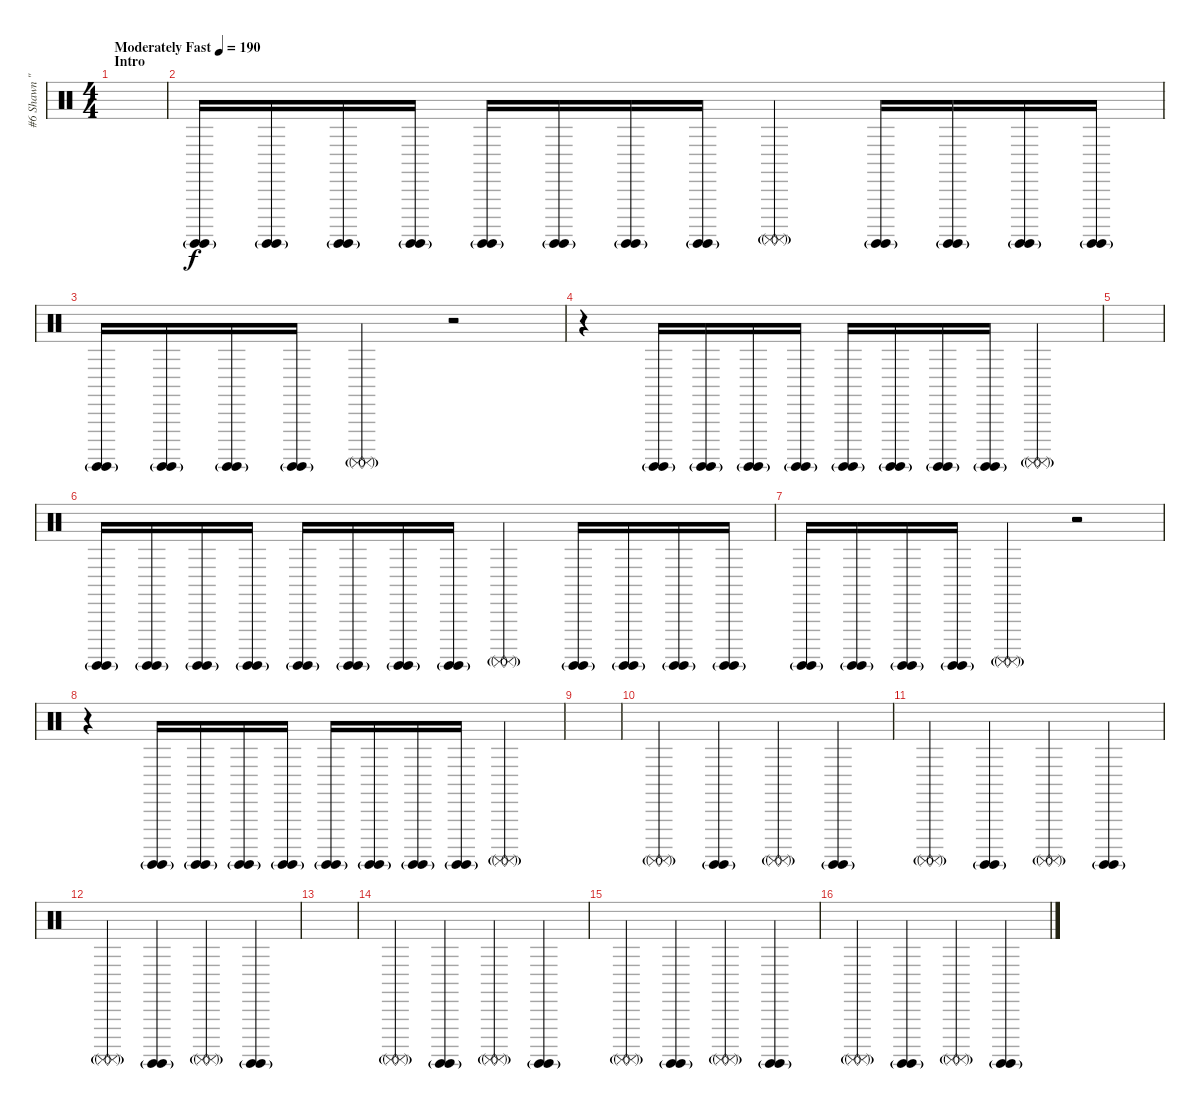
\track ("#6 Shawn \"Clown\" Crahan" "#6 Shawn \"") {instrument percussion}
\staff {score}
\articulation defaults
\ts (4 4)
\section ("" "Intro")
\tempo (190 "Moderately Fast")
\clef neutral
\ks c
|
("Surdo (hit)"{g} "Surdo (hit)"{g}).16 ("Surdo (hit)"{g} "Surdo (hit)"{g}).16 ("Surdo (hit)"{g} "Surdo (hit)"{g}).16 ("Surdo (hit)"{g} "Surdo (hit)"{g}).16 ("Surdo (hit)"{g} "Surdo (hit)"{g}).16 ("Surdo (hit)"{g} "Surdo (hit)"{g}).16 ("Surdo (hit)"{g} "Surdo (hit)"{g}).16 ("Surdo (hit)"{g} "Surdo (hit)"{g}).16 ("Surdo (mute)"{g} "Surdo (mute)"{g}).4 ("Surdo (hit)"{g} "Surdo (hit)"{g}).16 ("Surdo (hit)"{g} "Surdo (hit)"{g}).16 ("Surdo (hit)"{g} "Surdo (hit)"{g}).16 ("Surdo (hit)"{g} "Surdo (hit)"{g}).16 |
("Surdo (hit)"{g} "Surdo (hit)"{g}).16 ("Surdo (hit)"{g} "Surdo (hit)"{g}).16 ("Surdo (hit)"{g} "Surdo (hit)"{g}).16 ("Surdo (hit)"{g} "Surdo (hit)"{g}).16 ("Surdo (mute)"{g} "Surdo (mute)"{g}).4 r.2 |
r.4 ("Surdo (hit)"{g} "Surdo (hit)"{g}).16 ("Surdo (hit)"{g} "Surdo (hit)"{g}).16 ("Surdo (hit)"{g} "Surdo (hit)"{g}).16 ("Surdo (hit)"{g} "Surdo (hit)"{g}).16 ("Surdo (hit)"{g} "Surdo (hit)"{g}).16 ("Surdo (hit)"{g} "Surdo (hit)"{g}).16 ("Surdo (hit)"{g} "Surdo (hit)"{g}).16 ("Surdo (hit)"{g} "Surdo (hit)"{g}).16 ("Surdo (mute)"{g} "Surdo (mute)"{g}).4 |
|
("Surdo (hit)"{g} "Surdo (hit)"{g}).16 ("Surdo (hit)"{g} "Surdo (hit)"{g}).16 ("Surdo (hit)"{g} "Surdo (hit)"{g}).16 ("Surdo (hit)"{g} "Surdo (hit)"{g}).16 ("Surdo (hit)"{g} "Surdo (hit)"{g}).16 ("Surdo (hit)"{g} "Surdo (hit)"{g}).16 ("Surdo (hit)"{g} "Surdo (hit)"{g}).16 ("Surdo (hit)"{g} "Surdo (hit)"{g}).16 ("Surdo (mute)"{g} "Surdo (mute)"{g}).4 ("Surdo (hit)"{g} "Surdo (hit)"{g}).16 ("Surdo (hit)"{g} "Surdo (hit)"{g}).16 ("Surdo (hit)"{g} "Surdo (hit)"{g}).16 ("Surdo (hit)"{g} "Surdo (hit)"{g}).16 |
("Surdo (hit)"{g} "Surdo (hit)"{g}).16 ("Surdo (hit)"{g} "Surdo (hit)"{g}).16 ("Surdo (hit)"{g} "Surdo (hit)"{g}).16 ("Surdo (hit)"{g} "Surdo (hit)"{g}).16 ("Surdo (mute)"{g} "Surdo (mute)"{g}).4 r.2 |
r.4 ("Surdo (hit)"{g} "Surdo (hit)"{g}).16 ("Surdo (hit)"{g} "Surdo (hit)"{g}).16 ("Surdo (hit)"{g} "Surdo (hit)"{g}).16 ("Surdo (hit)"{g} "Surdo (hit)"{g}).16 ("Surdo (hit)"{g} "Surdo (hit)"{g}).16 ("Surdo (hit)"{g} "Surdo (hit)"{g}).16 ("Surdo (hit)"{g} "Surdo (hit)"{g}).16 ("Surdo (hit)"{g} "Surdo (hit)"{g}).16 ("Surdo (mute)"{g} "Surdo (mute)"{g}).4 |
|
("Surdo (mute)"{g} "Surdo (mute)"{g}).4 ("Surdo (hit)"{g} "Surdo (hit)"{g}).4 ("Surdo (mute)"{g} "Surdo (mute)"{g}).4 ("Surdo (hit)"{g} "Surdo (hit)"{g}).4 |
("Surdo (mute)"{g} "Surdo (mute)"{g}).4 ("Surdo (hit)"{g} "Surdo (hit)"{g}).4 ("Surdo (mute)"{g} "Surdo (mute)"{g}).4 ("Surdo (hit)"{g} "Surdo (hit)"{g}).4 |
("Surdo (mute)"{g} "Surdo (mute)"{g}).4 ("Surdo (hit)"{g} "Surdo (hit)"{g}).4 ("Surdo (mute)"{g} "Surdo (mute)"{g}).4 ("Surdo (hit)"{g} "Surdo (hit)"{g}).4 |
|
("Surdo (mute)"{g} "Surdo (mute)"{g}).4 ("Surdo (hit)"{g} "Surdo (hit)"{g}).4 ("Surdo (mute)"{g} "Surdo (mute)"{g}).4 ("Surdo (hit)"{g} "Surdo (hit)"{g}).4 |
("Surdo (mute)"{g} "Surdo (mute)"{g}).4 ("Surdo (hit)"{g} "Surdo (hit)"{g}).4 ("Surdo (mute)"{g} "Surdo (mute)"{g}).4 ("Surdo (hit)"{g} "Surdo (hit)"{g}).4 |
("Surdo (mute)"{g} "Surdo (mute)"{g}).4 ("Surdo (hit)"{g} "Surdo (hit)"{g}).4 ("Surdo (mute)"{g} "Surdo (mute)"{g}).4 ("Surdo (hit)"{g} "Surdo (hit)"{g}).4
